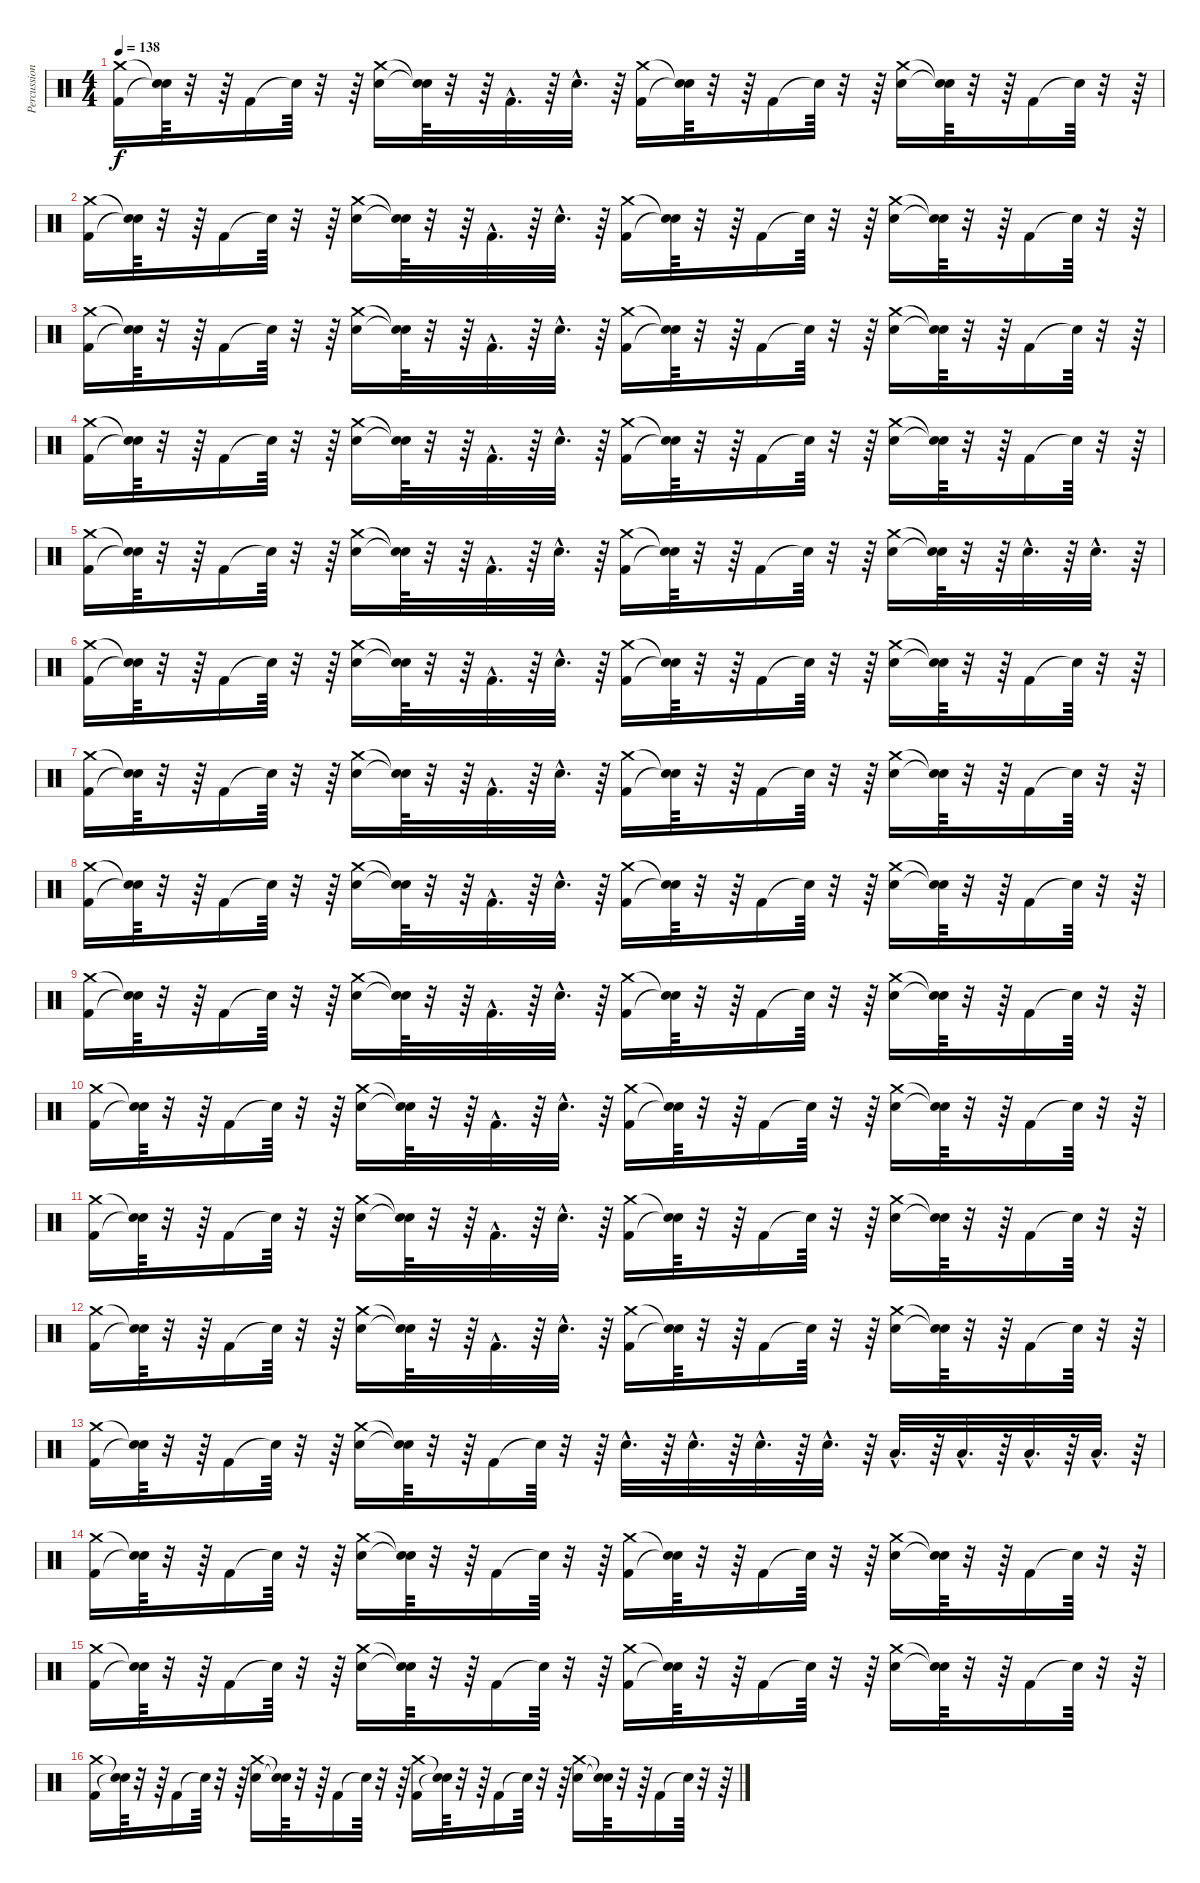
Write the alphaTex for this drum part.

\track ("Percussions" "Percussion") {instrument percussion}
\staff {score}
\articulation defaults
\ts (4 4)
\tempo 138
\clef neutral
\ks c
("Kick (hit) 2" "Crash medium (hit)").16{dy f} ("Snare (hit)"{t} "Snare (hit)"{t}).64 r.32 r.64 "Kick (hit) 2".16 "Snare (hit)"{t}.64 r.32 r.64 ("Electric Snare (hit)" "Crash medium (hit)").16 ("Snare (hit)"{t} "Snare (hit)"{t}).64 r.32 r.64 "Kick (hit) 2"{hac}.32{d} r.64 "Electric Snare (hit)"{hac}.32{d} r.64 ("Kick (hit) 2" "Crash medium (hit)").16 ("Snare (hit)"{t} "Snare (hit)"{t}).64 r.32 r.64 "Kick (hit) 2".16 "Snare (hit)"{t}.64 r.32 r.64 ("Electric Snare (hit)" "Crash medium (hit)").16 ("Snare (hit)"{t} "Snare (hit)"{t}).64 r.32 r.64 "Kick (hit) 2".16 "Snare (hit)"{t}.64 r.32 r.64 |
("Kick (hit) 2" "Crash medium (hit)").16 ("Snare (hit)"{t} "Snare (hit)"{t}).64 r.32 r.64 "Kick (hit) 2".16 "Snare (hit)"{t}.64 r.32 r.64 ("Electric Snare (hit)" "Crash medium (hit)").16 ("Snare (hit)"{t} "Snare (hit)"{t}).64 r.32 r.64 "Kick (hit) 2"{hac}.32{d} r.64 "Electric Snare (hit)"{hac}.32{d} r.64 ("Kick (hit) 2" "Crash medium (hit)").16 ("Snare (hit)"{t} "Snare (hit)"{t}).64 r.32 r.64 "Kick (hit) 2".16 "Snare (hit)"{t}.64 r.32 r.64 ("Electric Snare (hit)" "Crash medium (hit)").16 ("Snare (hit)"{t} "Snare (hit)"{t}).64 r.32 r.64 "Kick (hit) 2".16 "Snare (hit)"{t}.64 r.32 r.64 |
("Kick (hit) 2" "Crash medium (hit)").16 ("Snare (hit)"{t} "Snare (hit)"{t}).64 r.32 r.64 "Kick (hit) 2".16 "Snare (hit)"{t}.64 r.32 r.64 ("Electric Snare (hit)" "Crash medium (hit)").16 ("Snare (hit)"{t} "Snare (hit)"{t}).64 r.32 r.64 "Kick (hit) 2"{hac}.32{d} r.64 "Electric Snare (hit)"{hac}.32{d} r.64 ("Kick (hit) 2" "Crash medium (hit)").16 ("Snare (hit)"{t} "Snare (hit)"{t}).64 r.32 r.64 "Kick (hit) 2".16 "Snare (hit)"{t}.64 r.32 r.64 ("Electric Snare (hit)" "Crash medium (hit)").16 ("Snare (hit)"{t} "Snare (hit)"{t}).64 r.32 r.64 "Kick (hit) 2".16 "Snare (hit)"{t}.64 r.32 r.64 |
("Kick (hit) 2" "Crash medium (hit)").16 ("Snare (hit)"{t} "Snare (hit)"{t}).64 r.32 r.64 "Kick (hit) 2".16 "Snare (hit)"{t}.64 r.32 r.64 ("Electric Snare (hit)" "Crash medium (hit)").16 ("Snare (hit)"{t} "Snare (hit)"{t}).64 r.32 r.64 "Kick (hit) 2"{hac}.32{d} r.64 "Electric Snare (hit)"{hac}.32{d} r.64 ("Kick (hit) 2" "Crash medium (hit)").16 ("Snare (hit)"{t} "Snare (hit)"{t}).64 r.32 r.64 "Kick (hit) 2".16 "Snare (hit)"{t}.64 r.32 r.64 ("Electric Snare (hit)" "Crash medium (hit)").16 ("Snare (hit)"{t} "Snare (hit)"{t}).64 r.32 r.64 "Kick (hit) 2".16 "Snare (hit)"{t}.64 r.32 r.64 |
("Kick (hit) 2" "Crash medium (hit)").16 ("Snare (hit)"{t} "Snare (hit)"{t}).64 r.32 r.64 "Kick (hit) 2".16 "Snare (hit)"{t}.64 r.32 r.64 ("Electric Snare (hit)" "Crash medium (hit)").16 ("Snare (hit)"{t} "Snare (hit)"{t}).64 r.32 r.64 "Kick (hit) 2"{hac}.32{d} r.64 "Electric Snare (hit)"{hac}.32{d} r.64 ("Kick (hit) 2" "Crash medium (hit)").16 ("Snare (hit)"{t} "Snare (hit)"{t}).64 r.32 r.64 "Kick (hit) 2".16 "Snare (hit)"{t}.64 r.32 r.64 ("Electric Snare (hit)" "Crash medium (hit)").16 ("Snare (hit)"{t} "Snare (hit)"{t}).64 r.32 r.64 "Electric Snare (hit)"{hac}.32{d} r.64 "Electric Snare (hit)"{hac}.32{d} r.64 |
("Kick (hit) 2" "Crash medium (hit)").16 ("Snare (hit)"{t} "Snare (hit)"{t}).64 r.32 r.64 "Kick (hit) 2".16 "Snare (hit)"{t}.64 r.32 r.64 ("Electric Snare (hit)" "Crash medium (hit)").16 ("Snare (hit)"{t} "Snare (hit)"{t}).64 r.32 r.64 "Kick (hit) 2"{hac}.32{d} r.64 "Electric Snare (hit)"{hac}.32{d} r.64 ("Kick (hit) 2" "Crash medium (hit)").16 ("Snare (hit)"{t} "Snare (hit)"{t}).64 r.32 r.64 "Kick (hit) 2".16 "Snare (hit)"{t}.64 r.32 r.64 ("Electric Snare (hit)" "Crash medium (hit)").16 ("Snare (hit)"{t} "Snare (hit)"{t}).64 r.32 r.64 "Kick (hit) 2".16 "Snare (hit)"{t}.64 r.32 r.64 |
("Kick (hit) 2" "Crash medium (hit)").16 ("Snare (hit)"{t} "Snare (hit)"{t}).64 r.32 r.64 "Kick (hit) 2".16 "Snare (hit)"{t}.64 r.32 r.64 ("Electric Snare (hit)" "Crash medium (hit)").16 ("Snare (hit)"{t} "Snare (hit)"{t}).64 r.32 r.64 "Kick (hit) 2"{hac}.32{d} r.64 "Electric Snare (hit)"{hac}.32{d} r.64 ("Kick (hit) 2" "Crash medium (hit)").16 ("Snare (hit)"{t} "Snare (hit)"{t}).64 r.32 r.64 "Kick (hit) 2".16 "Snare (hit)"{t}.64 r.32 r.64 ("Electric Snare (hit)" "Crash medium (hit)").16 ("Snare (hit)"{t} "Snare (hit)"{t}).64 r.32 r.64 "Kick (hit) 2".16 "Snare (hit)"{t}.64 r.32 r.64 |
("Kick (hit) 2" "Crash medium (hit)").16 ("Snare (hit)"{t} "Snare (hit)"{t}).64 r.32 r.64 "Kick (hit) 2".16 "Snare (hit)"{t}.64 r.32 r.64 ("Electric Snare (hit)" "Crash medium (hit)").16 ("Snare (hit)"{t} "Snare (hit)"{t}).64 r.32 r.64 "Kick (hit) 2"{hac}.32{d} r.64 "Electric Snare (hit)"{hac}.32{d} r.64 ("Kick (hit) 2" "Crash medium (hit)").16 ("Snare (hit)"{t} "Snare (hit)"{t}).64 r.32 r.64 "Kick (hit) 2".16 "Snare (hit)"{t}.64 r.32 r.64 ("Electric Snare (hit)" "Crash medium (hit)").16 ("Snare (hit)"{t} "Snare (hit)"{t}).64 r.32 r.64 "Kick (hit) 2".16 "Snare (hit)"{t}.64 r.32 r.64 |
("Kick (hit) 2" "Crash medium (hit)").16 ("Snare (hit)"{t} "Snare (hit)"{t}).64 r.32 r.64 "Kick (hit) 2".16 "Snare (hit)"{t}.64 r.32 r.64 ("Electric Snare (hit)" "Crash medium (hit)").16 ("Snare (hit)"{t} "Snare (hit)"{t}).64 r.32 r.64 "Kick (hit) 2"{hac}.32{d} r.64 "Electric Snare (hit)"{hac}.32{d} r.64 ("Kick (hit) 2" "Crash medium (hit)").16 ("Snare (hit)"{t} "Snare (hit)"{t}).64 r.32 r.64 "Kick (hit) 2".16 "Snare (hit)"{t}.64 r.32 r.64 ("Electric Snare (hit)" "Crash medium (hit)").16 ("Snare (hit)"{t} "Snare (hit)"{t}).64 r.32 r.64 "Kick (hit) 2".16 "Snare (hit)"{t}.64 r.32 r.64 |
("Kick (hit) 2" "Crash medium (hit)").16 ("Snare (hit)"{t} "Snare (hit)"{t}).64 r.32 r.64 "Kick (hit) 2".16 "Snare (hit)"{t}.64 r.32 r.64 ("Electric Snare (hit)" "Crash medium (hit)").16 ("Snare (hit)"{t} "Snare (hit)"{t}).64 r.32 r.64 "Kick (hit) 2"{hac}.32{d} r.64 "Electric Snare (hit)"{hac}.32{d} r.64 ("Kick (hit) 2" "Crash medium (hit)").16 ("Snare (hit)"{t} "Snare (hit)"{t}).64 r.32 r.64 "Kick (hit) 2".16 "Snare (hit)"{t}.64 r.32 r.64 ("Electric Snare (hit)" "Crash medium (hit)").16 ("Snare (hit)"{t} "Snare (hit)"{t}).64 r.32 r.64 "Kick (hit) 2".16 "Snare (hit)"{t}.64 r.32 r.64 |
("Kick (hit) 2" "Crash medium (hit)").16 ("Snare (hit)"{t} "Snare (hit)"{t}).64 r.32 r.64 "Kick (hit) 2".16 "Snare (hit)"{t}.64 r.32 r.64 ("Electric Snare (hit)" "Crash medium (hit)").16 ("Snare (hit)"{t} "Snare (hit)"{t}).64 r.32 r.64 "Kick (hit) 2"{hac}.32{d} r.64 "Electric Snare (hit)"{hac}.32{d} r.64 ("Kick (hit) 2" "Crash medium (hit)").16 ("Snare (hit)"{t} "Snare (hit)"{t}).64 r.32 r.64 "Kick (hit) 2".16 "Snare (hit)"{t}.64 r.32 r.64 ("Electric Snare (hit)" "Crash medium (hit)").16 ("Snare (hit)"{t} "Snare (hit)"{t}).64 r.32 r.64 "Kick (hit) 2".16 "Snare (hit)"{t}.64 r.32 r.64 |
("Kick (hit) 2" "Crash medium (hit)").16 ("Snare (hit)"{t} "Snare (hit)"{t}).64 r.32 r.64 "Kick (hit) 2".16 "Snare (hit)"{t}.64 r.32 r.64 ("Electric Snare (hit)" "Crash medium (hit)").16 ("Snare (hit)"{t} "Snare (hit)"{t}).64 r.32 r.64 "Kick (hit) 2"{hac}.32{d} r.64 "Electric Snare (hit)"{hac}.32{d} r.64 ("Kick (hit) 2" "Crash medium (hit)").16 ("Snare (hit)"{t} "Snare (hit)"{t}).64 r.32 r.64 "Kick (hit) 2".16 "Snare (hit)"{t}.64 r.32 r.64 ("Electric Snare (hit)" "Crash medium (hit)").16 ("Snare (hit)"{t} "Snare (hit)"{t}).64 r.32 r.64 "Kick (hit) 2".16 "Snare (hit)"{t}.64 r.32 r.64 |
("Kick (hit) 2" "Crash medium (hit)").16 ("Snare (hit)"{t} "Snare (hit)"{t}).64 r.32 r.64 "Kick (hit) 2".16 "Snare (hit)"{t}.64 r.32 r.64 ("Electric Snare (hit)" "Crash medium (hit)").16 ("Snare (hit)"{t} "Snare (hit)"{t}).64 r.32 r.64 "Kick (hit) 2".16 "Snare (hit)"{t}.64 r.32 r.64 "Electric Snare (hit)"{hac}.32{d} r.64 "Electric Snare (hit)"{hac}.32{d} r.64 "Electric Snare (hit)"{hac}.32{d} r.64 "Electric Snare (hit)"{hac}.32{d} r.64 "Low Floor Tom (hit)"{hac}.32{d} r.64 "Low Floor Tom (hit)"{hac}.32{d} r.64 "Low Floor Tom (hit)"{hac}.32{d} r.64 "Low Floor Tom (hit)"{hac}.32{d} r.64 |
("Kick (hit) 2" "Crash medium (hit)").16 ("Snare (hit)"{t} "Snare (hit)"{t}).64 r.32 r.64 "Kick (hit) 2".16 "Snare (hit)"{t}.64 r.32 r.64 ("Electric Snare (hit)" "Crash medium (hit)").16 ("Snare (hit)"{t} "Snare (hit)"{t}).64 r.32 r.64 "Kick (hit) 2".16 "Snare (hit)"{t}.64 r.32 r.64 ("Kick (hit) 2" "Crash medium (hit)").16 ("Snare (hit)"{t} "Snare (hit)"{t}).64 r.32 r.64 "Kick (hit) 2".16 "Snare (hit)"{t}.64 r.32 r.64 ("Electric Snare (hit)" "Crash medium (hit)").16 ("Snare (hit)"{t} "Snare (hit)"{t}).64 r.32 r.64 "Kick (hit) 2".16 "Snare (hit)"{t}.64 r.32 r.64 |
("Kick (hit) 2" "Crash medium (hit)").16 ("Snare (hit)"{t} "Snare (hit)"{t}).64 r.32 r.64 "Kick (hit) 2".16 "Snare (hit)"{t}.64 r.32 r.64 ("Electric Snare (hit)" "Crash medium (hit)").16 ("Snare (hit)"{t} "Snare (hit)"{t}).64 r.32 r.64 "Kick (hit) 2".16 "Snare (hit)"{t}.64 r.32 r.64 ("Kick (hit) 2" "Crash medium (hit)").16 ("Snare (hit)"{t} "Snare (hit)"{t}).64 r.32 r.64 "Kick (hit) 2".16 "Snare (hit)"{t}.64 r.32 r.64 ("Electric Snare (hit)" "Crash medium (hit)").16 ("Snare (hit)"{t} "Snare (hit)"{t}).64 r.32 r.64 "Kick (hit) 2".16 "Snare (hit)"{t}.64 r.32 r.64 |
("Kick (hit) 2" "Crash medium (hit)").16 ("Snare (hit)"{t} "Snare (hit)"{t}).64 r.32 r.64 "Kick (hit) 2".16 "Snare (hit)"{t}.64 r.32 r.64 ("Electric Snare (hit)" "Crash medium (hit)").16 ("Snare (hit)"{t} "Snare (hit)"{t}).64 r.32 r.64 "Kick (hit) 2".16 "Snare (hit)"{t}.64 r.32 r.64 ("Kick (hit) 2" "Crash medium (hit)").16 ("Snare (hit)"{t} "Snare (hit)"{t}).64 r.32 r.64 "Kick (hit) 2".16 "Snare (hit)"{t}.64 r.32 r.64 ("Electric Snare (hit)" "Crash medium (hit)").16 ("Snare (hit)"{t} "Snare (hit)"{t}).64 r.32 r.64 "Kick (hit) 2".16 "Snare (hit)"{t}.64 r.32 r.64
